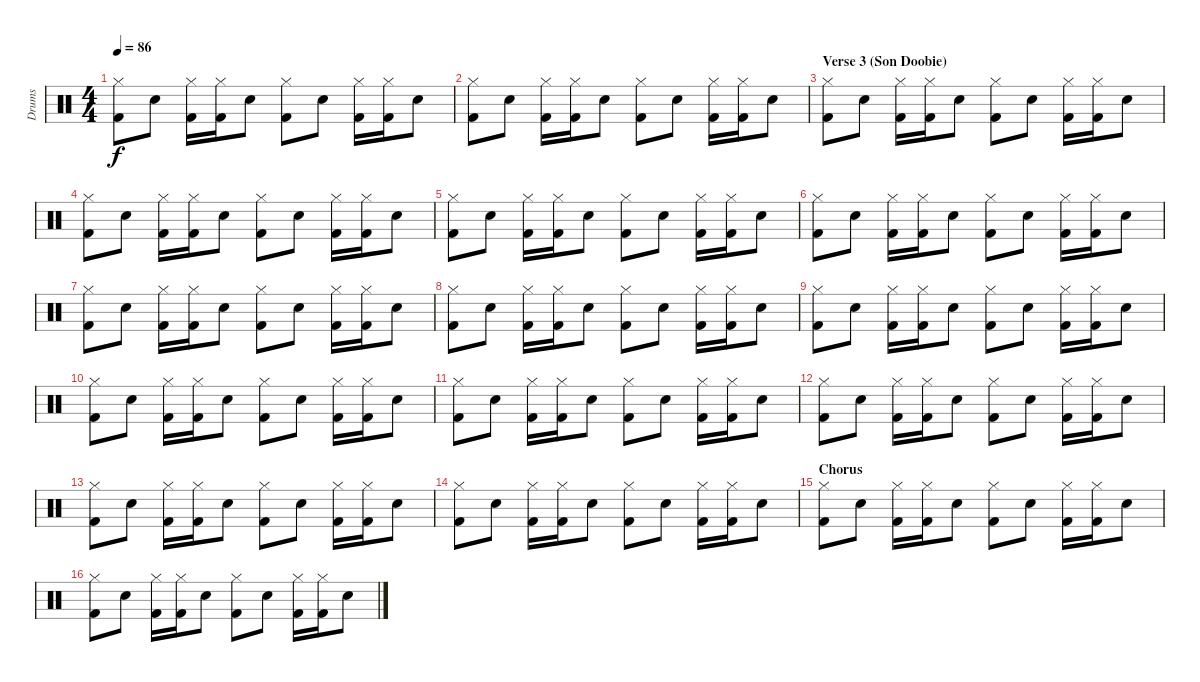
\track ("Drums" "Drums") {instrument percussion}
\staff {score}
\articulation defaults
\ts (4 4)
\tempo 86
\clef neutral
\ks c
("Hi-Hat (closed)" "Kick (hit) 2").8{dy f} "Electric Snare (hit)".8 ("Hi-Hat (closed)" "Kick (hit) 2").16 ("Hi-Hat (closed)" "Kick (hit) 2").16 "Electric Snare (hit)".8 ("Hi-Hat (closed)" "Kick (hit) 2").8 "Electric Snare (hit)".8 ("Hi-Hat (closed)" "Kick (hit) 2").16 ("Hi-Hat (closed)" "Kick (hit) 2").16 "Electric Snare (hit)".8 |
("Hi-Hat (closed)" "Kick (hit) 2").8 "Electric Snare (hit)".8 ("Hi-Hat (closed)" "Kick (hit) 2").16 ("Hi-Hat (closed)" "Kick (hit) 2").16 "Electric Snare (hit)".8 ("Hi-Hat (closed)" "Kick (hit) 2").8 "Electric Snare (hit)".8 ("Hi-Hat (closed)" "Kick (hit) 2").16 ("Hi-Hat (closed)" "Kick (hit) 2").16 "Electric Snare (hit)".8 |
\section ("" "Verse 3 (Son Doobie)")
("Hi-Hat (closed)" "Kick (hit) 2").8 "Electric Snare (hit)".8 ("Hi-Hat (closed)" "Kick (hit) 2").16 ("Hi-Hat (closed)" "Kick (hit) 2").16 "Electric Snare (hit)".8 ("Hi-Hat (closed)" "Kick (hit) 2").8 "Electric Snare (hit)".8 ("Hi-Hat (closed)" "Kick (hit) 2").16 ("Hi-Hat (closed)" "Kick (hit) 2").16 "Electric Snare (hit)".8 |
("Hi-Hat (closed)" "Kick (hit) 2").8 "Electric Snare (hit)".8 ("Hi-Hat (closed)" "Kick (hit) 2").16 ("Hi-Hat (closed)" "Kick (hit) 2").16 "Electric Snare (hit)".8 ("Hi-Hat (closed)" "Kick (hit) 2").8 "Electric Snare (hit)".8 ("Hi-Hat (closed)" "Kick (hit) 2").16 ("Hi-Hat (closed)" "Kick (hit) 2").16 "Electric Snare (hit)".8 |
("Hi-Hat (closed)" "Kick (hit) 2").8 "Electric Snare (hit)".8 ("Hi-Hat (closed)" "Kick (hit) 2").16 ("Hi-Hat (closed)" "Kick (hit) 2").16 "Electric Snare (hit)".8 ("Hi-Hat (closed)" "Kick (hit) 2").8 "Electric Snare (hit)".8 ("Hi-Hat (closed)" "Kick (hit) 2").16 ("Hi-Hat (closed)" "Kick (hit) 2").16 "Electric Snare (hit)".8 |
("Hi-Hat (closed)" "Kick (hit) 2").8 "Electric Snare (hit)".8 ("Hi-Hat (closed)" "Kick (hit) 2").16 ("Hi-Hat (closed)" "Kick (hit) 2").16 "Electric Snare (hit)".8 ("Hi-Hat (closed)" "Kick (hit) 2").8 "Electric Snare (hit)".8 ("Hi-Hat (closed)" "Kick (hit) 2").16 ("Hi-Hat (closed)" "Kick (hit) 2").16 "Electric Snare (hit)".8 |
("Hi-Hat (closed)" "Kick (hit) 2").8 "Electric Snare (hit)".8 ("Hi-Hat (closed)" "Kick (hit) 2").16 ("Hi-Hat (closed)" "Kick (hit) 2").16 "Electric Snare (hit)".8 ("Hi-Hat (closed)" "Kick (hit) 2").8 "Electric Snare (hit)".8 ("Hi-Hat (closed)" "Kick (hit) 2").16 ("Hi-Hat (closed)" "Kick (hit) 2").16 "Electric Snare (hit)".8 |
("Hi-Hat (closed)" "Kick (hit) 2").8 "Electric Snare (hit)".8 ("Hi-Hat (closed)" "Kick (hit) 2").16 ("Hi-Hat (closed)" "Kick (hit) 2").16 "Electric Snare (hit)".8 ("Hi-Hat (closed)" "Kick (hit) 2").8 "Electric Snare (hit)".8 ("Hi-Hat (closed)" "Kick (hit) 2").16 ("Hi-Hat (closed)" "Kick (hit) 2").16 "Electric Snare (hit)".8 |
("Hi-Hat (closed)" "Kick (hit) 2").8 "Electric Snare (hit)".8 ("Hi-Hat (closed)" "Kick (hit) 2").16 ("Hi-Hat (closed)" "Kick (hit) 2").16 "Electric Snare (hit)".8 ("Hi-Hat (closed)" "Kick (hit) 2").8 "Electric Snare (hit)".8 ("Hi-Hat (closed)" "Kick (hit) 2").16 ("Hi-Hat (closed)" "Kick (hit) 2").16 "Electric Snare (hit)".8 |
("Hi-Hat (closed)" "Kick (hit) 2").8 "Electric Snare (hit)".8 ("Hi-Hat (closed)" "Kick (hit) 2").16 ("Hi-Hat (closed)" "Kick (hit) 2").16 "Electric Snare (hit)".8 ("Hi-Hat (closed)" "Kick (hit) 2").8 "Electric Snare (hit)".8 ("Hi-Hat (closed)" "Kick (hit) 2").16 ("Hi-Hat (closed)" "Kick (hit) 2").16 "Electric Snare (hit)".8 |
("Hi-Hat (closed)" "Kick (hit) 2").8 "Electric Snare (hit)".8 ("Hi-Hat (closed)" "Kick (hit) 2").16 ("Hi-Hat (closed)" "Kick (hit) 2").16 "Electric Snare (hit)".8 ("Hi-Hat (closed)" "Kick (hit) 2").8 "Electric Snare (hit)".8 ("Hi-Hat (closed)" "Kick (hit) 2").16 ("Hi-Hat (closed)" "Kick (hit) 2").16 "Electric Snare (hit)".8 |
("Hi-Hat (closed)" "Kick (hit) 2").8 "Electric Snare (hit)".8 ("Hi-Hat (closed)" "Kick (hit) 2").16 ("Hi-Hat (closed)" "Kick (hit) 2").16 "Electric Snare (hit)".8 ("Hi-Hat (closed)" "Kick (hit) 2").8 "Electric Snare (hit)".8 ("Hi-Hat (closed)" "Kick (hit) 2").16 ("Hi-Hat (closed)" "Kick (hit) 2").16 "Electric Snare (hit)".8 |
("Hi-Hat (closed)" "Kick (hit) 2").8 "Electric Snare (hit)".8 ("Hi-Hat (closed)" "Kick (hit) 2").16 ("Hi-Hat (closed)" "Kick (hit) 2").16 "Electric Snare (hit)".8 ("Hi-Hat (closed)" "Kick (hit) 2").8 "Electric Snare (hit)".8 ("Hi-Hat (closed)" "Kick (hit) 2").16 ("Hi-Hat (closed)" "Kick (hit) 2").16 "Electric Snare (hit)".8 |
("Hi-Hat (closed)" "Kick (hit) 2").8 "Electric Snare (hit)".8 ("Hi-Hat (closed)" "Kick (hit) 2").16 ("Hi-Hat (closed)" "Kick (hit) 2").16 "Electric Snare (hit)".8 ("Hi-Hat (closed)" "Kick (hit) 2").8 "Electric Snare (hit)".8 ("Hi-Hat (closed)" "Kick (hit) 2").16 ("Hi-Hat (closed)" "Kick (hit) 2").16 "Electric Snare (hit)".8 |
\section ("" "Chorus")
("Hi-Hat (closed)" "Kick (hit) 2").8 "Electric Snare (hit)".8 ("Hi-Hat (closed)" "Kick (hit) 2").16 ("Hi-Hat (closed)" "Kick (hit) 2").16 "Electric Snare (hit)".8 ("Hi-Hat (closed)" "Kick (hit) 2").8 "Electric Snare (hit)".8 ("Hi-Hat (closed)" "Kick (hit) 2").16 ("Hi-Hat (closed)" "Kick (hit) 2").16 "Electric Snare (hit)".8 |
("Hi-Hat (closed)" "Kick (hit) 2").8 "Electric Snare (hit)".8 ("Hi-Hat (closed)" "Kick (hit) 2").16 ("Hi-Hat (closed)" "Kick (hit) 2").16 "Electric Snare (hit)".8 ("Hi-Hat (closed)" "Kick (hit) 2").8 "Electric Snare (hit)".8 ("Hi-Hat (closed)" "Kick (hit) 2").16 ("Hi-Hat (closed)" "Kick (hit) 2").16 "Electric Snare (hit)".8
